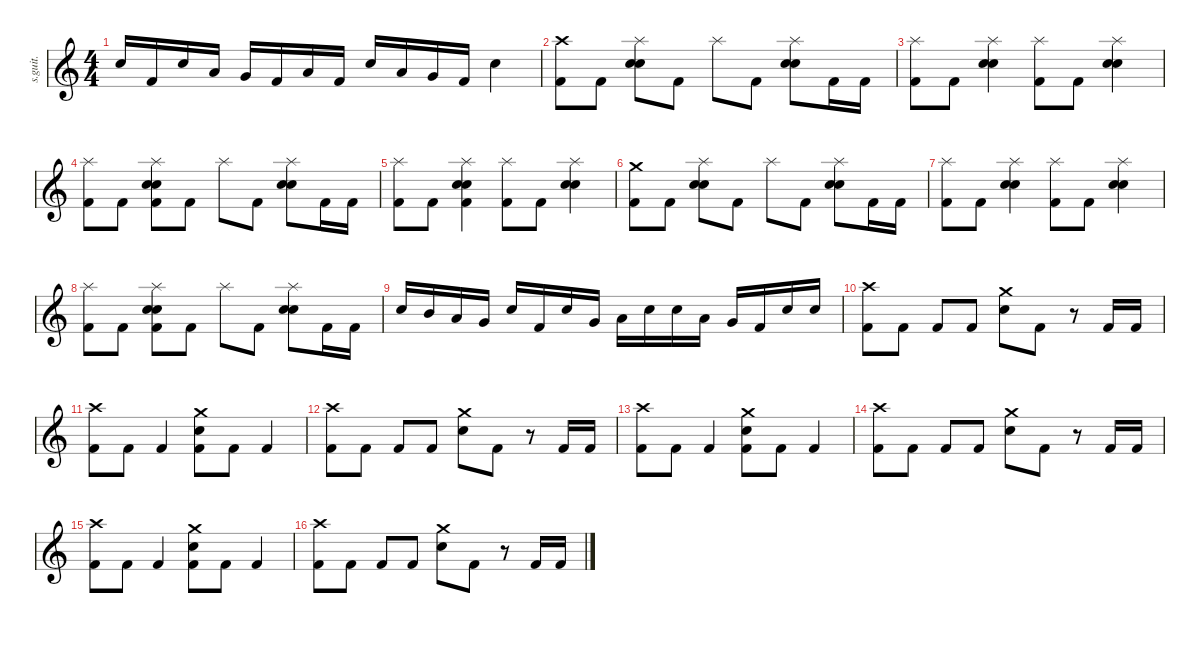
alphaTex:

\defaultSystemsLayout 4
\hideDynamics
\bracketExtendMode nobrackets
\track ("Batterie" "s.guit.") {instrument percussion}
\staff {score}
\articulation defaults
\ts (4 4)
\tempo (170 hide)
\clef g2
\ks c "Electric Snare (hit)".16{lyrics (0 "") lyrics (1 "") lyrics (2 "") lyrics (3 "") lyrics (4 "") dy fff} "Kick (hit) 2".16{lyrics (0 "") lyrics (1 "") lyrics (2 "") lyrics (3 "") lyrics (4 "")} "Electric Snare (hit)".16{lyrics (0 "") lyrics (1 "") lyrics (2 "") lyrics (3 "") lyrics (4 "")} "Low Tom (hit)".16{lyrics (0 "") lyrics (1 "") lyrics (2 "") lyrics (3 "") lyrics (4 "")} "Very Low Tom (hit)".16{lyrics (0 "") lyrics (1 "") lyrics (2 "") lyrics (3 "") lyrics (4 "")} "Kick (hit) 2".16{lyrics (0 "") lyrics (1 "") lyrics (2 "") lyrics (3 "") lyrics (4 "")} "Low Floor Tom (hit)".16{lyrics (0 "") lyrics (1 "") lyrics (2 "") lyrics (3 "") lyrics (4 "")} "Kick (hit) 2".16{lyrics (0 "") lyrics (1 "") lyrics (2 "") lyrics (3 "") lyrics (4 "")} "Electric Snare (hit)".16{lyrics (0 "") lyrics (1 "") lyrics (2 "") lyrics (3 "") lyrics (4 "")} "Low Tom (hit)".16{lyrics (0 "") lyrics (1 "") lyrics (2 "") lyrics (3 "") lyrics (4 "")} "Very Low Tom (hit)".16{lyrics (0 "") lyrics (1 "") lyrics (2 "") lyrics (3 "") lyrics (4 "")} "Kick (hit) 2".16{lyrics (0 "") lyrics (1 "") lyrics (2 "") lyrics (3 "") lyrics (4 "")} "Electric Snare (hit)".4{lyrics (0 "") lyrics (1 "") lyrics (2 "") lyrics (3 "") lyrics (4 "")}
|
("Crash high (hit)" "Kick (hit) 2").8{lyrics (0 "") lyrics (1 "") lyrics (2 "") lyrics (3 "") lyrics (4 "") dy f} "Kick (hit) 2".8{lyrics (0 "") lyrics (1 "") lyrics (2 "") lyrics (3 "") lyrics (4 "") dy fff} ("Splash (hit)" "Electric Snare (hit)" "Electric Snare (hit)").8{lyrics (0 "") lyrics (1 "") lyrics (2 "") lyrics (3 "") lyrics (4 "") dy f} "Kick (hit) 2".8{lyrics (0 "") lyrics (1 "") lyrics (2 "") lyrics (3 "") lyrics (4 "") dy fff} "Splash (hit)".8{lyrics (0 "") lyrics (1 "") lyrics (2 "") lyrics (3 "") lyrics (4 "") dy f} "Kick (hit) 2".8{lyrics (0 "") lyrics (1 "") lyrics (2 "") lyrics (3 "") lyrics (4 "") dy fff} ("Splash (hit)" "Electric Snare (hit)" "Electric Snare (hit)").8{lyrics (0 "") lyrics (1 "") lyrics (2 "") lyrics (3 "") lyrics (4 "") dy f} "Kick (hit) 2".16{lyrics (0 "") lyrics (1 "") lyrics (2 "") lyrics (3 "") lyrics (4 "") dy fff} "Kick (hit) 2".16{lyrics (0 "") lyrics (1 "") lyrics (2 "") lyrics (3 "") lyrics (4 "")} |
("Splash (hit)" "Kick (hit) 2").8{lyrics (0 "") lyrics (1 "") lyrics (2 "") lyrics (3 "") lyrics (4 "") dy f} "Kick (hit) 2".8{lyrics (0 "") lyrics (1 "") lyrics (2 "") lyrics (3 "") lyrics (4 "") dy fff} ("Splash (hit)" "Electric Snare (hit)" "Electric Snare (hit)").4{lyrics (0 "") lyrics (1 "") lyrics (2 "") lyrics (3 "") lyrics (4 "") dy f} ("Splash (hit)" "Kick (hit) 2").8{lyrics (0 "") lyrics (1 "") lyrics (2 "") lyrics (3 "") lyrics (4 "")} "Kick (hit) 2".8{lyrics (0 "") lyrics (1 "") lyrics (2 "") lyrics (3 "") lyrics (4 "") dy fff} ("Splash (hit)" "Electric Snare (hit)" "Electric Snare (hit)").4{lyrics (0 "") lyrics (1 "") lyrics (2 "") lyrics (3 "") lyrics (4 "") dy f} |
("Splash (hit)" "Kick (hit) 2").8{lyrics (0 "") lyrics (1 "") lyrics (2 "") lyrics (3 "") lyrics (4 "")} "Kick (hit) 2".8{lyrics (0 "") lyrics (1 "") lyrics (2 "") lyrics (3 "") lyrics (4 "") dy fff} ("Splash (hit)" "Electric Snare (hit)" "Electric Snare (hit)" "Kick (hit) 2").8{lyrics (0 "") lyrics (1 "") lyrics (2 "") lyrics (3 "") lyrics (4 "") dy f} "Kick (hit) 2".8{lyrics (0 "") lyrics (1 "") lyrics (2 "") lyrics (3 "") lyrics (4 "") dy fff} "Splash (hit)".8{lyrics (0 "") lyrics (1 "") lyrics (2 "") lyrics (3 "") lyrics (4 "") dy f} "Kick (hit) 2".8{lyrics (0 "") lyrics (1 "") lyrics (2 "") lyrics (3 "") lyrics (4 "") dy fff} ("Splash (hit)" "Electric Snare (hit)" "Electric Snare (hit)").8{lyrics (0 "") lyrics (1 "") lyrics (2 "") lyrics (3 "") lyrics (4 "") dy f} "Kick (hit) 2".16{lyrics (0 "") lyrics (1 "") lyrics (2 "") lyrics (3 "") lyrics (4 "") dy fff} "Kick (hit) 2".16{lyrics (0 "") lyrics (1 "") lyrics (2 "") lyrics (3 "") lyrics (4 "")} |
("Splash (hit)" "Kick (hit) 2").8{lyrics (0 "") lyrics (1 "") lyrics (2 "") lyrics (3 "") lyrics (4 "") dy f} "Kick (hit) 2".8{lyrics (0 "") lyrics (1 "") lyrics (2 "") lyrics (3 "") lyrics (4 "") dy fff} ("Splash (hit)" "Electric Snare (hit)" "Electric Snare (hit)" "Kick (hit) 2").4{lyrics (0 "") lyrics (1 "") lyrics (2 "") lyrics (3 "") lyrics (4 "") dy f} ("Splash (hit)" "Kick (hit) 2").8{lyrics (0 "") lyrics (1 "") lyrics (2 "") lyrics (3 "") lyrics (4 "")} "Kick (hit) 2".8{lyrics (0 "") lyrics (1 "") lyrics (2 "") lyrics (3 "") lyrics (4 "") dy fff} ("Splash (hit)" "Electric Snare (hit)" "Electric Snare (hit)").4{lyrics (0 "") lyrics (1 "") lyrics (2 "") lyrics (3 "") lyrics (4 "") dy f} |
("Crash medium (hit)" "Kick (hit) 2").8{lyrics (0 "") lyrics (1 "") lyrics (2 "") lyrics (3 "") lyrics (4 "")} "Kick (hit) 2".8{lyrics (0 "") lyrics (1 "") lyrics (2 "") lyrics (3 "") lyrics (4 "") dy fff} ("Splash (hit)" "Electric Snare (hit)" "Electric Snare (hit)").8{lyrics (0 "") lyrics (1 "") lyrics (2 "") lyrics (3 "") lyrics (4 "") dy f} "Kick (hit) 2".8{lyrics (0 "") lyrics (1 "") lyrics (2 "") lyrics (3 "") lyrics (4 "") dy fff} "Splash (hit)".8{lyrics (0 "") lyrics (1 "") lyrics (2 "") lyrics (3 "") lyrics (4 "") dy f} "Kick (hit) 2".8{lyrics (0 "") lyrics (1 "") lyrics (2 "") lyrics (3 "") lyrics (4 "") dy fff} ("Splash (hit)" "Electric Snare (hit)" "Electric Snare (hit)").8{lyrics (0 "") lyrics (1 "") lyrics (2 "") lyrics (3 "") lyrics (4 "") dy f} "Kick (hit) 2".16{lyrics (0 "") lyrics (1 "") lyrics (2 "") lyrics (3 "") lyrics (4 "") dy fff} "Kick (hit) 2".16{lyrics (0 "") lyrics (1 "") lyrics (2 "") lyrics (3 "") lyrics (4 "")} |
("Splash (hit)" "Kick (hit) 2").8{lyrics (0 "") lyrics (1 "") lyrics (2 "") lyrics (3 "") lyrics (4 "") dy f} "Kick (hit) 2".8{lyrics (0 "") lyrics (1 "") lyrics (2 "") lyrics (3 "") lyrics (4 "") dy fff} ("Splash (hit)" "Electric Snare (hit)" "Electric Snare (hit)").4{lyrics (0 "") lyrics (1 "") lyrics (2 "") lyrics (3 "") lyrics (4 "") dy f} ("Splash (hit)" "Kick (hit) 2").8{lyrics (0 "") lyrics (1 "") lyrics (2 "") lyrics (3 "") lyrics (4 "")} "Kick (hit) 2".8{lyrics (0 "") lyrics (1 "") lyrics (2 "") lyrics (3 "") lyrics (4 "") dy fff} ("Splash (hit)" "Electric Snare (hit)" "Electric Snare (hit)").4{lyrics (0 "") lyrics (1 "") lyrics (2 "") lyrics (3 "") lyrics (4 "") dy f} |
("Splash (hit)" "Kick (hit) 2").8{lyrics (0 "") lyrics (1 "") lyrics (2 "") lyrics (3 "") lyrics (4 "")} "Kick (hit) 2".8{lyrics (0 "") lyrics (1 "") lyrics (2 "") lyrics (3 "") lyrics (4 "") dy fff} ("Splash (hit)" "Electric Snare (hit)" "Electric Snare (hit)" "Kick (hit) 2").8{lyrics (0 "") lyrics (1 "") lyrics (2 "") lyrics (3 "") lyrics (4 "") dy f} "Kick (hit) 2".8{lyrics (0 "") lyrics (1 "") lyrics (2 "") lyrics (3 "") lyrics (4 "") dy fff} "Splash (hit)".8{lyrics (0 "") lyrics (1 "") lyrics (2 "") lyrics (3 "") lyrics (4 "") dy f} "Kick (hit) 2".8{lyrics (0 "") lyrics (1 "") lyrics (2 "") lyrics (3 "") lyrics (4 "") dy fff} ("Splash (hit)" "Electric Snare (hit)" "Electric Snare (hit)").8{lyrics (0 "") lyrics (1 "") lyrics (2 "") lyrics (3 "") lyrics (4 "") dy f} "Kick (hit) 2".16{lyrics (0 "") lyrics (1 "") lyrics (2 "") lyrics (3 "") lyrics (4 "") dy fff} "Kick (hit) 2".16{lyrics (0 "") lyrics (1 "") lyrics (2 "") lyrics (3 "") lyrics (4 "")} |
"Electric Snare (hit)".16{lyrics (0 "") lyrics (1 "") lyrics (2 "") lyrics (3 "") lyrics (4 "")} "Mid Tom (hit)".16{lyrics (0 "") lyrics (1 "") lyrics (2 "") lyrics (3 "") lyrics (4 "")} "Low Tom (hit)".16{lyrics (0 "") lyrics (1 "") lyrics (2 "") lyrics (3 "") lyrics (4 "")} "Very Low Tom (hit)".16{lyrics (0 "") lyrics (1 "") lyrics (2 "") lyrics (3 "") lyrics (4 "")} "Electric Snare (hit)".16{lyrics (0 "") lyrics (1 "") lyrics (2 "") lyrics (3 "") lyrics (4 "")} "Kick (hit) 2".16{lyrics (0 "") lyrics (1 "") lyrics (2 "") lyrics (3 "") lyrics (4 "")} "Electric Snare (hit)".16{lyrics (0 "") lyrics (1 "") lyrics (2 "") lyrics (3 "") lyrics (4 "")} "Very Low Tom (hit)".16{lyrics (0 "") lyrics (1 "") lyrics (2 "") lyrics (3 "") lyrics (4 "")} "Low Floor Tom (hit)".16{lyrics (0 "") lyrics (1 "") lyrics (2 "") lyrics (3 "") lyrics (4 "")} "Electric Snare (hit)".16{lyrics (0 "") lyrics (1 "") lyrics (2 "") lyrics (3 "") lyrics (4 "")} "Electric Snare (hit)".16{lyrics (0 "") lyrics (1 "") lyrics (2 "") lyrics (3 "") lyrics (4 "")} "Low Tom (hit)".16{lyrics (0 "") lyrics (1 "") lyrics (2 "") lyrics (3 "") lyrics (4 "")} "Very Low Tom (hit)".16{lyrics (0 "") lyrics (1 "") lyrics (2 "") lyrics (3 "") lyrics (4 "")} "Kick (hit) 2".16{lyrics (0 "") lyrics (1 "") lyrics (2 "") lyrics (3 "") lyrics (4 "")} "Electric Snare (hit)".16{lyrics (0 "") lyrics (1 "") lyrics (2 "") lyrics (3 "") lyrics (4 "")} "Electric Snare (hit)".16{lyrics (0 "") lyrics (1 "") lyrics (2 "") lyrics (3 "") lyrics (4 "")} |
("Crash high (hit)" "Kick (hit) 2").8{lyrics (0 "") lyrics (1 "") lyrics (2 "") lyrics (3 "") lyrics (4 "") dy f} "Kick (hit) 2".8{lyrics (0 "") lyrics (1 "") lyrics (2 "") lyrics (3 "") lyrics (4 "") dy fff} "Kick (hit) 2".8{lyrics (0 "") lyrics (1 "") lyrics (2 "") lyrics (3 "") lyrics (4 "")} "Kick (hit) 2".8{lyrics (0 "") lyrics (1 "") lyrics (2 "") lyrics (3 "") lyrics (4 "")} ("Crash medium (hit)" "Electric Snare (hit)").8{lyrics (0 "") lyrics (1 "") lyrics (2 "") lyrics (3 "") lyrics (4 "") dy f} "Kick (hit) 2".8{lyrics (0 "") lyrics (1 "") lyrics (2 "") lyrics (3 "") lyrics (4 "") dy fff} r.8 "Kick (hit) 2".16{lyrics (0 "") lyrics (1 "") lyrics (2 "") lyrics (3 "") lyrics (4 "")} "Kick (hit) 2".16{lyrics (0 "") lyrics (1 "") lyrics (2 "") lyrics (3 "") lyrics (4 "")} |
("Crash high (hit)" "Kick (hit) 2").8{lyrics (0 "") lyrics (1 "") lyrics (2 "") lyrics (3 "") lyrics (4 "") dy f} "Kick (hit) 2".8{lyrics (0 "") lyrics (1 "") lyrics (2 "") lyrics (3 "") lyrics (4 "") dy fff} "Kick (hit) 2".4{lyrics (0 "") lyrics (1 "") lyrics (2 "") lyrics (3 "") lyrics (4 "")} ("Crash medium (hit)" "Electric Snare (hit)" "Kick (hit) 2").8{lyrics (0 "") lyrics (1 "") lyrics (2 "") lyrics (3 "") lyrics (4 "") dy f} "Kick (hit) 2".8{lyrics (0 "") lyrics (1 "") lyrics (2 "") lyrics (3 "") lyrics (4 "") dy fff} "Kick (hit) 2".4{lyrics (0 "") lyrics (1 "") lyrics (2 "") lyrics (3 "") lyrics (4 "")} |
("Crash high (hit)" "Kick (hit) 2").8{lyrics (0 "") lyrics (1 "") lyrics (2 "") lyrics (3 "") lyrics (4 "") dy f} "Kick (hit) 2".8{lyrics (0 "") lyrics (1 "") lyrics (2 "") lyrics (3 "") lyrics (4 "") dy fff} "Kick (hit) 2".8{lyrics (0 "") lyrics (1 "") lyrics (2 "") lyrics (3 "") lyrics (4 "")} "Kick (hit) 2".8{lyrics (0 "") lyrics (1 "") lyrics (2 "") lyrics (3 "") lyrics (4 "")} ("Crash medium (hit)" "Electric Snare (hit)").8{lyrics (0 "") lyrics (1 "") lyrics (2 "") lyrics (3 "") lyrics (4 "") dy f} "Kick (hit) 2".8{lyrics (0 "") lyrics (1 "") lyrics (2 "") lyrics (3 "") lyrics (4 "") dy fff} r.8 "Kick (hit) 2".16{lyrics (0 "") lyrics (1 "") lyrics (2 "") lyrics (3 "") lyrics (4 "")} "Kick (hit) 2".16{lyrics (0 "") lyrics (1 "") lyrics (2 "") lyrics (3 "") lyrics (4 "")} |
("Crash high (hit)" "Kick (hit) 2").8{lyrics (0 "") lyrics (1 "") lyrics (2 "") lyrics (3 "") lyrics (4 "") dy f} "Kick (hit) 2".8{lyrics (0 "") lyrics (1 "") lyrics (2 "") lyrics (3 "") lyrics (4 "") dy fff} "Kick (hit) 2".4{lyrics (0 "") lyrics (1 "") lyrics (2 "") lyrics (3 "") lyrics (4 "")} ("Crash medium (hit)" "Electric Snare (hit)" "Kick (hit) 2").8{lyrics (0 "") lyrics (1 "") lyrics (2 "") lyrics (3 "") lyrics (4 "") dy f} "Kick (hit) 2".8{lyrics (0 "") lyrics (1 "") lyrics (2 "") lyrics (3 "") lyrics (4 "") dy fff} "Kick (hit) 2".4{lyrics (0 "") lyrics (1 "") lyrics (2 "") lyrics (3 "") lyrics (4 "")} |
("Crash high (hit)" "Kick (hit) 2").8{lyrics (0 "") lyrics (1 "") lyrics (2 "") lyrics (3 "") lyrics (4 "") dy f} "Kick (hit) 2".8{lyrics (0 "") lyrics (1 "") lyrics (2 "") lyrics (3 "") lyrics (4 "") dy fff} "Kick (hit) 2".8{lyrics (0 "") lyrics (1 "") lyrics (2 "") lyrics (3 "") lyrics (4 "")} "Kick (hit) 2".8{lyrics (0 "") lyrics (1 "") lyrics (2 "") lyrics (3 "") lyrics (4 "")} ("Crash medium (hit)" "Electric Snare (hit)").8{lyrics (0 "") lyrics (1 "") lyrics (2 "") lyrics (3 "") lyrics (4 "") dy f} "Kick (hit) 2".8{lyrics (0 "") lyrics (1 "") lyrics (2 "") lyrics (3 "") lyrics (4 "") dy fff} r.8 "Kick (hit) 2".16{lyrics (0 "") lyrics (1 "") lyrics (2 "") lyrics (3 "") lyrics (4 "")} "Kick (hit) 2".16{lyrics (0 "") lyrics (1 "") lyrics (2 "") lyrics (3 "") lyrics (4 "")} |
("Crash high (hit)" "Kick (hit) 2").8{lyrics (0 "") lyrics (1 "") lyrics (2 "") lyrics (3 "") lyrics (4 "") dy f} "Kick (hit) 2".8{lyrics (0 "") lyrics (1 "") lyrics (2 "") lyrics (3 "") lyrics (4 "") dy fff} "Kick (hit) 2".4{lyrics (0 "") lyrics (1 "") lyrics (2 "") lyrics (3 "") lyrics (4 "")} ("Crash medium (hit)" "Electric Snare (hit)" "Kick (hit) 2").8{lyrics (0 "") lyrics (1 "") lyrics (2 "") lyrics (3 "") lyrics (4 "") dy f} "Kick (hit) 2".8{lyrics (0 "") lyrics (1 "") lyrics (2 "") lyrics (3 "") lyrics (4 "") dy fff} "Kick (hit) 2".4{lyrics (0 "") lyrics (1 "") lyrics (2 "") lyrics (3 "") lyrics (4 "")} |
("Crash high (hit)" "Kick (hit) 2").8{lyrics (0 "") lyrics (1 "") lyrics (2 "") lyrics (3 "") lyrics (4 "") dy f} "Kick (hit) 2".8{lyrics (0 "") lyrics (1 "") lyrics (2 "") lyrics (3 "") lyrics (4 "") dy fff} "Kick (hit) 2".8{lyrics (0 "") lyrics (1 "") lyrics (2 "") lyrics (3 "") lyrics (4 "")} "Kick (hit) 2".8{lyrics (0 "") lyrics (1 "") lyrics (2 "") lyrics (3 "") lyrics (4 "")} ("Crash medium (hit)" "Electric Snare (hit)").8{lyrics (0 "") lyrics (1 "") lyrics (2 "") lyrics (3 "") lyrics (4 "") dy f} "Kick (hit) 2".8{lyrics (0 "") lyrics (1 "") lyrics (2 "") lyrics (3 "") lyrics (4 "") dy fff} r.8 "Kick (hit) 2".16{lyrics (0 "") lyrics (1 "") lyrics (2 "") lyrics (3 "") lyrics (4 "")} "Kick (hit) 2".16{lyrics (0 "") lyrics (1 "") lyrics (2 "") lyrics (3 "") lyrics (4 "")}
